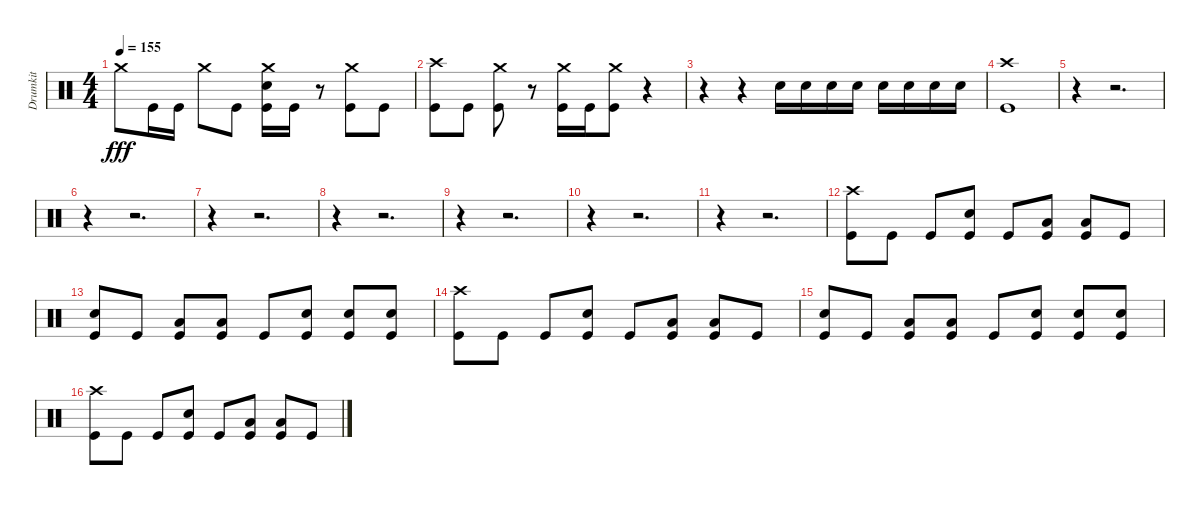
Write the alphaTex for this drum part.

\track ("Drumkit" "Drumkit") {instrument percussion}
\staff {score}
\articulation defaults
\ts (4 4)
\tempo 155
\clef neutral
\ks c "Crash medium (hit)".8{dy fff} "Kick (hit)".16 "Kick (hit)".16 "Crash medium (hit)".8 "Kick (hit)".8
("Crash medium (hit)" "Snare (hit) 2" "Kick (hit)").16 "Kick (hit)".16 r.8 ("Crash medium (hit)" "Kick (hit)").8 "Kick (hit)".8 |
("Crash high (hit)" "Kick (hit)").8 "Kick (hit)".8 ("Crash medium (hit)" "Kick (hit)").8 r.8 ("Crash medium (hit)" "Kick (hit)").16 "Kick (hit)".16 ("Crash medium (hit)" "Kick (hit)").8 r.4 |
r.4 r.4 "Snare (hit) 2".16 "Snare (hit) 2".16 "Snare (hit) 2".16 "Snare (hit) 2".16 "Snare (hit) 2".16 "Snare (hit) 2".16 "Snare (hit) 2".16 "Snare (hit) 2".16 |
("Crash high (hit)" "Kick (hit)").1 |
r.4 r.2{d} |
r.4 r.2{d} |
r.4 r.2{d} |
r.4 r.2{d} |
r.4 r.2{d} |
r.4 r.2{d} |
r.4 r.2{d} |
("Crash high (hit)" "Kick (hit)").8 "Kick (hit)".8 "Kick (hit)".8 ("Snare (hit) 2" "Kick (hit)").8 "Kick (hit)".8 ("Low Tom (hit)" "Kick (hit)").8 ("Low Tom (hit)" "Kick (hit)").8 "Kick (hit)".8 |
("Snare (hit) 2" "Kick (hit)").8 "Kick (hit)".8 ("Low Tom (hit)" "Kick (hit)").8 ("Low Tom (hit)" "Kick (hit)").8 "Kick (hit)".8 ("Snare (hit) 2" "Kick (hit)").8 ("Snare (hit) 2" "Kick (hit)").8 ("Snare (hit) 2" "Kick (hit)").8 |
("Crash high (hit)" "Kick (hit)").8 "Kick (hit)".8 "Kick (hit)".8 ("Snare (hit) 2" "Kick (hit)").8 "Kick (hit)".8 ("Low Tom (hit)" "Kick (hit)").8 ("Low Tom (hit)" "Kick (hit)").8 "Kick (hit)".8 |
("Snare (hit) 2" "Kick (hit)").8 "Kick (hit)".8 ("Low Tom (hit)" "Kick (hit)").8 ("Low Tom (hit)" "Kick (hit)").8 "Kick (hit)".8 ("Snare (hit) 2" "Kick (hit)").8 ("Snare (hit) 2" "Kick (hit)").8 ("Snare (hit) 2" "Kick (hit)").8 |
("Crash high (hit)" "Kick (hit)").8 "Kick (hit)".8 "Kick (hit)".8 ("Snare (hit) 2" "Kick (hit)").8 "Kick (hit)".8 ("Low Tom (hit)" "Kick (hit)").8 ("Low Tom (hit)" "Kick (hit)").8 "Kick (hit)".8
